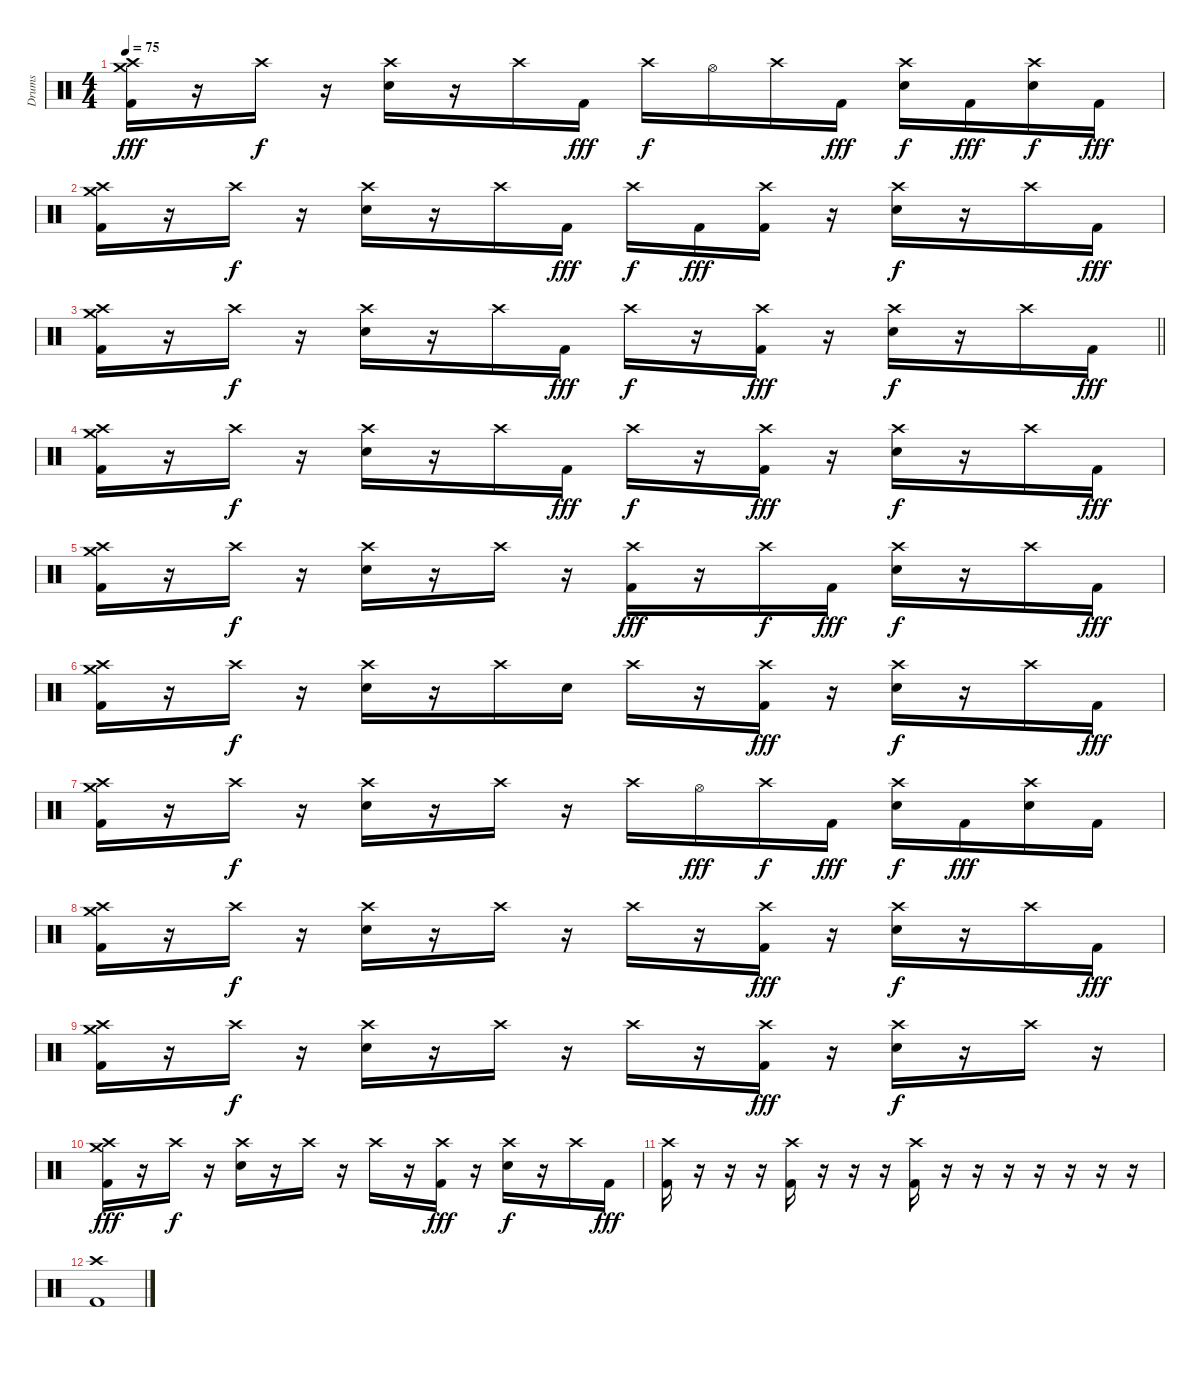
\track ("Drums" "Drums") {instrument percussion}
\staff {score}
\articulation defaults
\ts (4 4)
\tempo 75
\clef neutral
\ks c
("Crash high (hit)" "Crash medium (hit)" "Kick (hit) 2").16{dy fff} r.16 "Crash high (hit)".16{dy f} r.16 ("Crash high (hit)" "Electric Snare (hit)").16 r.16 "Crash high (hit)".16 "Kick (hit) 2".16{dy fff} "Crash high (hit)".16{dy f} "Hi-Hat (open)".16 "Crash high (hit)".16 "Kick (hit) 2".16{dy fff} ("Crash high (hit)" "Electric Snare (hit)").16{dy f} "Kick (hit) 2".16{dy fff} ("Crash high (hit)" "Electric Snare (hit)").16{dy f} "Kick (hit) 2".16{dy fff} |
("Crash high (hit)" "Crash medium (hit)" "Kick (hit) 2").16 r.16 "Crash high (hit)".16{dy f} r.16 ("Crash high (hit)" "Electric Snare (hit)").16 r.16 "Crash high (hit)".16 "Kick (hit) 2".16{dy fff} "Crash high (hit)".16{dy f} "Kick (hit) 2".16{dy fff} ("Crash high (hit)" "Kick (hit) 2").16 r.16 ("Crash high (hit)" "Electric Snare (hit)").16{dy f} r.16 "Crash high (hit)".16 "Kick (hit) 2".16{dy fff} |
\barLineRight lightlight
("Crash high (hit)" "Crash medium (hit)" "Kick (hit) 2").16 r.16 "Crash high (hit)".16{dy f} r.16 ("Crash high (hit)" "Electric Snare (hit)").16 r.16 "Crash high (hit)".16 "Kick (hit) 2".16{dy fff} "Crash high (hit)".16{dy f} r.16 ("Crash high (hit)" "Kick (hit) 2").16{dy fff} r.16 ("Crash high (hit)" "Electric Snare (hit)").16{dy f} r.16 "Crash high (hit)".16 "Kick (hit) 2".16{dy fff} |
\section ("" "")
("Crash high (hit)" "Crash medium (hit)" "Kick (hit) 2").16 r.16 "Crash high (hit)".16{dy f} r.16 ("Crash high (hit)" "Electric Snare (hit)").16 r.16 "Crash high (hit)".16 "Kick (hit) 2".16{dy fff} "Crash high (hit)".16{dy f} r.16 ("Crash high (hit)" "Kick (hit) 2").16{dy fff} r.16 ("Crash high (hit)" "Electric Snare (hit)").16{dy f} r.16 "Crash high (hit)".16 "Kick (hit) 2".16{dy fff} |
("Crash high (hit)" "Crash medium (hit)" "Kick (hit) 2").16 r.16 "Crash high (hit)".16{dy f} r.16 ("Crash high (hit)" "Electric Snare (hit)").16 r.16 "Crash high (hit)".16 r.16 ("Crash high (hit)" "Kick (hit) 2").16{dy fff} r.16 "Crash high (hit)".16{dy f} "Kick (hit) 2".16{dy fff} ("Crash high (hit)" "Electric Snare (hit)").16{dy f} r.16 "Crash high (hit)".16 "Kick (hit) 2".16{dy fff} |
("Crash high (hit)" "Crash medium (hit)" "Kick (hit) 2").16 r.16 "Crash high (hit)".16{dy f} r.16 ("Crash high (hit)" "Electric Snare (hit)").16 r.16 "Crash high (hit)".16 "Electric Snare (hit)".16 "Crash high (hit)".16 r.16 ("Crash high (hit)" "Kick (hit) 2").16{dy fff} r.16 ("Crash high (hit)" "Electric Snare (hit)").16{dy f} r.16 "Crash high (hit)".16 "Kick (hit) 2".16{dy fff} |
("Crash high (hit)" "Crash medium (hit)" "Kick (hit) 2").16 r.16 "Crash high (hit)".16{dy f} r.16 ("Crash high (hit)" "Electric Snare (hit)").16 r.16 "Crash high (hit)".16 r.16 "Crash high (hit)".16 "Hi-Hat (open)".16{dy fff} "Crash high (hit)".16{dy f} "Kick (hit) 2".16{dy fff} ("Crash high (hit)" "Electric Snare (hit)").16{dy f} "Kick (hit) 2".16{dy fff} ("Crash high (hit)" "Electric Snare (hit)").16 "Kick (hit) 2".16 |
("Crash high (hit)" "Crash medium (hit)" "Kick (hit) 2").16 r.16 "Crash high (hit)".16{dy f} r.16 ("Crash high (hit)" "Electric Snare (hit)").16 r.16 "Crash high (hit)".16 r.16 "Crash high (hit)".16 r.16 ("Crash high (hit)" "Kick (hit) 2").16{dy fff} r.16 ("Crash high (hit)" "Electric Snare (hit)").16{dy f} r.16 "Crash high (hit)".16 "Kick (hit) 2".16{dy fff} |
("Crash high (hit)" "Crash medium (hit)" "Kick (hit) 2").16 r.16 "Crash high (hit)".16{dy f} r.16 ("Crash high (hit)" "Electric Snare (hit)").16 r.16 "Crash high (hit)".16 r.16 "Crash high (hit)".16 r.16 ("Crash high (hit)" "Kick (hit) 2").16{dy fff} r.16 ("Crash high (hit)" "Electric Snare (hit)").16{dy f} r.16 "Crash high (hit)".16 r.16 |
("Crash high (hit)" "Crash medium (hit)" "Kick (hit) 2").16{dy fff} r.16 "Crash high (hit)".16{dy f} r.16 ("Crash high (hit)" "Electric Snare (hit)").16 r.16 "Crash high (hit)".16 r.16 "Crash high (hit)".16 r.16 ("Crash high (hit)" "Kick (hit) 2").16{dy fff} r.16 ("Crash high (hit)" "Electric Snare (hit)").16{dy f} r.16 "Crash high (hit)".16 "Kick (hit) 2".16{dy fff} |
("Crash high (hit)" "Kick (hit) 2").16 r.16 r.16 r.16 ("Crash high (hit)" "Kick (hit) 2").16 r.16 r.16 r.16 ("Crash high (hit)" "Kick (hit) 2").16 r.16 r.16 r.16 r.16 r.16 r.16 r.16 |
("Crash high (hit)" "Kick (hit) 2").1
